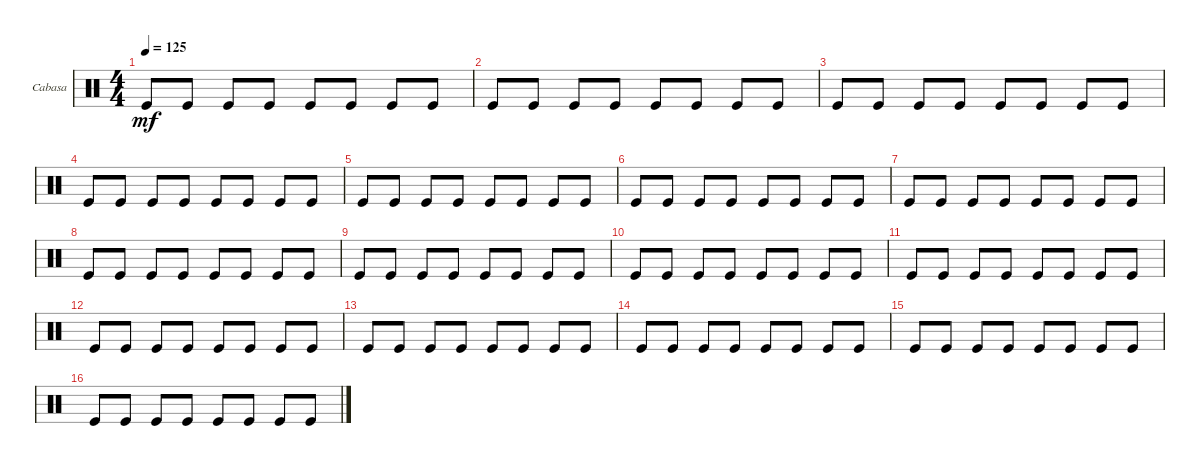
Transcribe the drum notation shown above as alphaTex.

\defaultSystemsLayout 4
\bracketExtendMode groupsimilarinstruments
\firstSystemTrackNameOrientation horizontal
\otherSystemsTrackNameOrientation horizontal
\track ("Cabasa" "Cabasa") {instrument percussion}
\staff {score}
\articulation defaults
\ts (4 4)
\tempo 125
\clef neutral
\ks c "Kick (hit)".8{dy mf} "Kick (hit)".8 "Kick (hit)".8 "Kick (hit)".8 "Kick (hit)".8 "Kick (hit)".8 "Kick (hit)".8 "Kick (hit)".8
|
"Kick (hit)".8 "Kick (hit)".8 "Kick (hit)".8 "Kick (hit)".8 "Kick (hit)".8 "Kick (hit)".8 "Kick (hit)".8 "Kick (hit)".8 |
"Kick (hit)".8 "Kick (hit)".8 "Kick (hit)".8 "Kick (hit)".8 "Kick (hit)".8 "Kick (hit)".8 "Kick (hit)".8 "Kick (hit)".8 |
"Kick (hit)".8 "Kick (hit)".8 "Kick (hit)".8 "Kick (hit)".8 "Kick (hit)".8 "Kick (hit)".8 "Kick (hit)".8 "Kick (hit)".8 |
"Kick (hit)".8 "Kick (hit)".8 "Kick (hit)".8 "Kick (hit)".8 "Kick (hit)".8 "Kick (hit)".8 "Kick (hit)".8 "Kick (hit)".8 |
"Kick (hit)".8 "Kick (hit)".8 "Kick (hit)".8 "Kick (hit)".8 "Kick (hit)".8 "Kick (hit)".8 "Kick (hit)".8 "Kick (hit)".8 |
"Kick (hit)".8 "Kick (hit)".8 "Kick (hit)".8 "Kick (hit)".8 "Kick (hit)".8 "Kick (hit)".8 "Kick (hit)".8 "Kick (hit)".8 |
"Kick (hit)".8 "Kick (hit)".8 "Kick (hit)".8 "Kick (hit)".8 "Kick (hit)".8 "Kick (hit)".8 "Kick (hit)".8 "Kick (hit)".8 |
"Kick (hit)".8 "Kick (hit)".8 "Kick (hit)".8 "Kick (hit)".8 "Kick (hit)".8 "Kick (hit)".8 "Kick (hit)".8 "Kick (hit)".8 |
"Kick (hit)".8 "Kick (hit)".8 "Kick (hit)".8 "Kick (hit)".8 "Kick (hit)".8 "Kick (hit)".8 "Kick (hit)".8 "Kick (hit)".8 |
"Kick (hit)".8 "Kick (hit)".8 "Kick (hit)".8 "Kick (hit)".8 "Kick (hit)".8 "Kick (hit)".8 "Kick (hit)".8 "Kick (hit)".8 |
"Kick (hit)".8 "Kick (hit)".8 "Kick (hit)".8 "Kick (hit)".8 "Kick (hit)".8 "Kick (hit)".8 "Kick (hit)".8 "Kick (hit)".8 |
"Kick (hit)".8 "Kick (hit)".8 "Kick (hit)".8 "Kick (hit)".8 "Kick (hit)".8 "Kick (hit)".8 "Kick (hit)".8 "Kick (hit)".8 |
"Kick (hit)".8 "Kick (hit)".8 "Kick (hit)".8 "Kick (hit)".8 "Kick (hit)".8 "Kick (hit)".8 "Kick (hit)".8 "Kick (hit)".8 |
"Kick (hit)".8 "Kick (hit)".8 "Kick (hit)".8 "Kick (hit)".8 "Kick (hit)".8 "Kick (hit)".8 "Kick (hit)".8 "Kick (hit)".8 |
"Kick (hit)".8 "Kick (hit)".8 "Kick (hit)".8 "Kick (hit)".8 "Kick (hit)".8 "Kick (hit)".8 "Kick (hit)".8 "Kick (hit)".8
